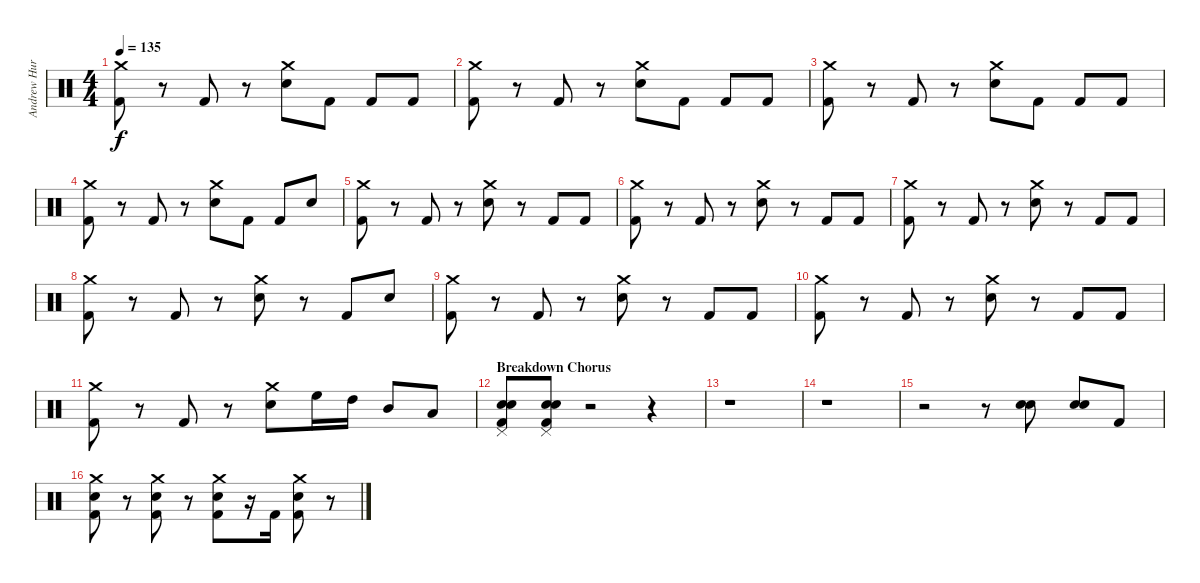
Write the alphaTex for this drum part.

\track ("Andrew Hurley (Drums)" "Andrew Hur") {instrument percussion}
\staff {score}
\articulation defaults
\ts (4 4)
\tempo 135
\clef neutral
\ks c
("Crash medium (hit)" "Kick (hit) 2").8{dy f} r.8 "Kick (hit) 2".8 r.8 ("Crash medium (hit)" "Electric Snare (hit)").8 "Kick (hit) 2".8 "Kick (hit) 2".8 "Kick (hit) 2".8 |
("Crash medium (hit)" "Kick (hit) 2").8 r.8 "Kick (hit) 2".8 r.8 ("Crash medium (hit)" "Electric Snare (hit)").8 "Kick (hit) 2".8 "Kick (hit) 2".8 "Kick (hit) 2".8 |
("Crash medium (hit)" "Kick (hit) 2").8 r.8 "Kick (hit) 2".8 r.8 ("Crash medium (hit)" "Electric Snare (hit)").8 "Kick (hit) 2".8 "Kick (hit) 2".8 "Kick (hit) 2".8 |
("Crash medium (hit)" "Kick (hit) 2").8 r.8 "Kick (hit) 2".8 r.8 ("Crash medium (hit)" "Electric Snare (hit)").8 "Kick (hit) 2".8 "Kick (hit) 2".8 "Electric Snare (hit)".8 |
("Crash medium (hit)" "Kick (hit) 2").8 r.8 "Kick (hit) 2".8 r.8 ("Crash medium (hit)" "Electric Snare (hit)").8 r.8 "Kick (hit) 2".8 "Kick (hit) 2".8 |
("Crash medium (hit)" "Kick (hit) 2").8 r.8 "Kick (hit) 2".8 r.8 ("Crash medium (hit)" "Electric Snare (hit)").8 r.8 "Kick (hit) 2".8 "Kick (hit) 2".8 |
("Crash medium (hit)" "Kick (hit) 2").8 r.8 "Kick (hit) 2".8 r.8 ("Crash medium (hit)" "Electric Snare (hit)").8 r.8 "Kick (hit) 2".8 "Kick (hit) 2".8 |
("Crash medium (hit)" "Kick (hit) 2").8 r.8 "Kick (hit) 2".8 r.8 ("Crash medium (hit)" "Electric Snare (hit)").8 r.8 "Kick (hit) 2".8 "Electric Snare (hit)".8 |
("Crash medium (hit)" "Kick (hit) 2").8 r.8 "Kick (hit) 2".8 r.8 ("Crash medium (hit)" "Electric Snare (hit)").8 r.8 "Kick (hit) 2".8 "Kick (hit) 2".8 |
("Crash medium (hit)" "Kick (hit) 2").8 r.8 "Kick (hit) 2".8 r.8 ("Crash medium (hit)" "Electric Snare (hit)").8 r.8 "Kick (hit) 2".8 "Kick (hit) 2".8 |
("Crash medium (hit)" "Kick (hit) 2").8 r.8 "Kick (hit) 2".8 r.8 ("Crash medium (hit)" "Electric Snare (hit)").8 "High Floor Tom (hit)".16 "High Tom (hit)".16 "Mid Tom (hit)".8 "Low Tom (hit)".8 |
\section ("" "Breakdown Chorus")
("Electric Snare (hit)" "Snare (hit) 2" "Pedal Hi-Hat (hit)" "Kick (hit) 2").8 ("Electric Snare (hit)" "Snare (hit) 2" "Pedal Hi-Hat (hit)" "Kick (hit) 2").8 r.2 r.4 |
r.1 |
r.1 |
r.2 r.8 ("Snare (hit) 2" "Electric Snare (hit)").8 ("Snare (hit) 2" "Electric Snare (hit)").8 "Kick (hit) 2".8 |
("Crash medium (hit)" "Electric Snare (hit)" "Kick (hit) 2").8 r.8 ("Crash medium (hit)" "Electric Snare (hit)" "Kick (hit) 2").8 r.8 ("Crash medium (hit)" "Electric Snare (hit)" "Kick (hit) 2").8 r.16 "Kick (hit) 2".16 ("Crash medium (hit)" "Electric Snare (hit)" "Kick (hit) 2").8 r.8
